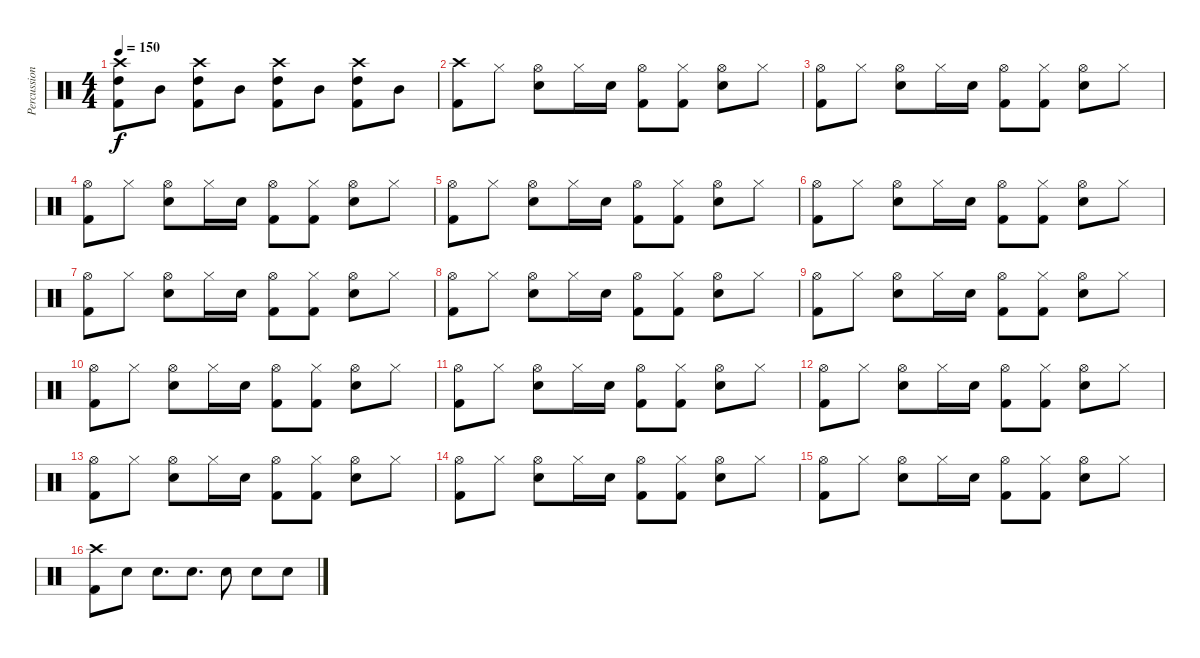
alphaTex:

\track ("Percussion" "Percussion") {instrument percussion}
\staff {score}
\articulation defaults
\ts (4 4)
\tempo 150
\clef neutral
\ks c
("Crash high (hit)" "Kick (hit) 2" "High Tom (hit)").8{dy f} "Mid Tom (hit)".8 ("Crash high (hit)" "Kick (hit) 2" "High Tom (hit)").8 "Mid Tom (hit)".8 ("Crash high (hit)" "Kick (hit) 2" "High Tom (hit)").8 "Mid Tom (hit)".8 ("Crash high (hit)" "Kick (hit) 2" "High Tom (hit)").8 "Mid Tom (hit)".8 |
("Crash high (hit)" "Kick (hit) 2").8 "Hi-Hat (closed)".8 ("Hi-Hat (open)" "Electric Snare (hit)").8 "Hi-Hat (closed)".16 "Electric Snare (hit)".16 ("Hi-Hat (open)" "Kick (hit) 2").8 ("Hi-Hat (closed)" "Kick (hit) 2").8 ("Hi-Hat (open)" "Electric Snare (hit)").8 "Hi-Hat (closed)".8 |
("Hi-Hat (open)" "Kick (hit) 2").8 "Hi-Hat (closed)".8 ("Hi-Hat (open)" "Electric Snare (hit)").8 "Hi-Hat (closed)".16 "Electric Snare (hit)".16 ("Hi-Hat (open)" "Kick (hit) 2").8 ("Hi-Hat (closed)" "Kick (hit) 2").8 ("Hi-Hat (open)" "Electric Snare (hit)").8 "Hi-Hat (closed)".8 |
("Hi-Hat (open)" "Kick (hit) 2").8 "Hi-Hat (closed)".8 ("Hi-Hat (open)" "Electric Snare (hit)").8 "Hi-Hat (closed)".16 "Electric Snare (hit)".16 ("Hi-Hat (open)" "Kick (hit) 2").8 ("Hi-Hat (closed)" "Kick (hit) 2").8 ("Hi-Hat (open)" "Electric Snare (hit)").8 "Hi-Hat (closed)".8 |
("Hi-Hat (open)" "Kick (hit) 2").8 "Hi-Hat (closed)".8 ("Hi-Hat (open)" "Electric Snare (hit)").8 "Hi-Hat (closed)".16 "Electric Snare (hit)".16 ("Hi-Hat (open)" "Kick (hit) 2").8 ("Hi-Hat (closed)" "Kick (hit) 2").8 ("Hi-Hat (open)" "Electric Snare (hit)").8 "Hi-Hat (closed)".8 |
("Hi-Hat (open)" "Kick (hit) 2").8 "Hi-Hat (closed)".8 ("Hi-Hat (open)" "Electric Snare (hit)").8 "Hi-Hat (closed)".16 "Electric Snare (hit)".16 ("Hi-Hat (open)" "Kick (hit) 2").8 ("Hi-Hat (closed)" "Kick (hit) 2").8 ("Hi-Hat (open)" "Electric Snare (hit)").8 "Hi-Hat (closed)".8 |
("Hi-Hat (open)" "Kick (hit) 2").8 "Hi-Hat (closed)".8 ("Hi-Hat (open)" "Electric Snare (hit)").8 "Hi-Hat (closed)".16 "Electric Snare (hit)".16 ("Hi-Hat (open)" "Kick (hit) 2").8 ("Hi-Hat (closed)" "Kick (hit) 2").8 ("Hi-Hat (open)" "Electric Snare (hit)").8 "Hi-Hat (closed)".8 |
("Hi-Hat (open)" "Kick (hit) 2").8 "Hi-Hat (closed)".8 ("Hi-Hat (open)" "Electric Snare (hit)").8 "Hi-Hat (closed)".16 "Electric Snare (hit)".16 ("Hi-Hat (open)" "Kick (hit) 2").8 ("Hi-Hat (closed)" "Kick (hit) 2").8 ("Hi-Hat (open)" "Electric Snare (hit)").8 "Hi-Hat (closed)".8 |
("Hi-Hat (open)" "Kick (hit) 2").8 "Hi-Hat (closed)".8 ("Hi-Hat (open)" "Electric Snare (hit)").8 "Hi-Hat (closed)".16 "Electric Snare (hit)".16 ("Hi-Hat (open)" "Kick (hit) 2").8 ("Hi-Hat (closed)" "Kick (hit) 2").8 ("Hi-Hat (open)" "Electric Snare (hit)").8 "Hi-Hat (closed)".8 |
("Hi-Hat (open)" "Kick (hit) 2").8 "Hi-Hat (closed)".8 ("Hi-Hat (open)" "Electric Snare (hit)").8 "Hi-Hat (closed)".16 "Electric Snare (hit)".16 ("Hi-Hat (open)" "Kick (hit) 2").8 ("Hi-Hat (closed)" "Kick (hit) 2").8 ("Hi-Hat (open)" "Electric Snare (hit)").8 "Hi-Hat (closed)".8 |
("Hi-Hat (open)" "Kick (hit) 2").8 "Hi-Hat (closed)".8 ("Hi-Hat (open)" "Electric Snare (hit)").8 "Hi-Hat (closed)".16 "Electric Snare (hit)".16 ("Hi-Hat (open)" "Kick (hit) 2").8 ("Hi-Hat (closed)" "Kick (hit) 2").8 ("Hi-Hat (open)" "Electric Snare (hit)").8 "Hi-Hat (closed)".8 |
("Hi-Hat (open)" "Kick (hit) 2").8 "Hi-Hat (closed)".8 ("Hi-Hat (open)" "Electric Snare (hit)").8 "Hi-Hat (closed)".16 "Electric Snare (hit)".16 ("Hi-Hat (open)" "Kick (hit) 2").8 ("Hi-Hat (closed)" "Kick (hit) 2").8 ("Hi-Hat (open)" "Electric Snare (hit)").8 "Hi-Hat (closed)".8 |
("Hi-Hat (open)" "Kick (hit) 2").8 "Hi-Hat (closed)".8 ("Hi-Hat (open)" "Electric Snare (hit)").8 "Hi-Hat (closed)".16 "Electric Snare (hit)".16 ("Hi-Hat (open)" "Kick (hit) 2").8 ("Hi-Hat (closed)" "Kick (hit) 2").8 ("Hi-Hat (open)" "Electric Snare (hit)").8 "Hi-Hat (closed)".8 |
("Hi-Hat (open)" "Kick (hit) 2").8 "Hi-Hat (closed)".8 ("Hi-Hat (open)" "Electric Snare (hit)").8 "Hi-Hat (closed)".16 "Electric Snare (hit)".16 ("Hi-Hat (open)" "Kick (hit) 2").8 ("Hi-Hat (closed)" "Kick (hit) 2").8 ("Hi-Hat (open)" "Electric Snare (hit)").8 "Hi-Hat (closed)".8 |
("Hi-Hat (open)" "Kick (hit) 2").8 "Hi-Hat (closed)".8 ("Hi-Hat (open)" "Electric Snare (hit)").8 "Hi-Hat (closed)".16 "Electric Snare (hit)".16 ("Hi-Hat (open)" "Kick (hit) 2").8 ("Hi-Hat (closed)" "Kick (hit) 2").8 ("Hi-Hat (open)" "Electric Snare (hit)").8 "Hi-Hat (closed)".8 |
("Crash high (hit)" "Kick (hit) 2").8 "Electric Snare (hit)".8 "Electric Snare (hit)".8{d} "Electric Snare (hit)".8{d} "Electric Snare (hit)".8 "Electric Snare (hit)".8 "Electric Snare (hit)".8
